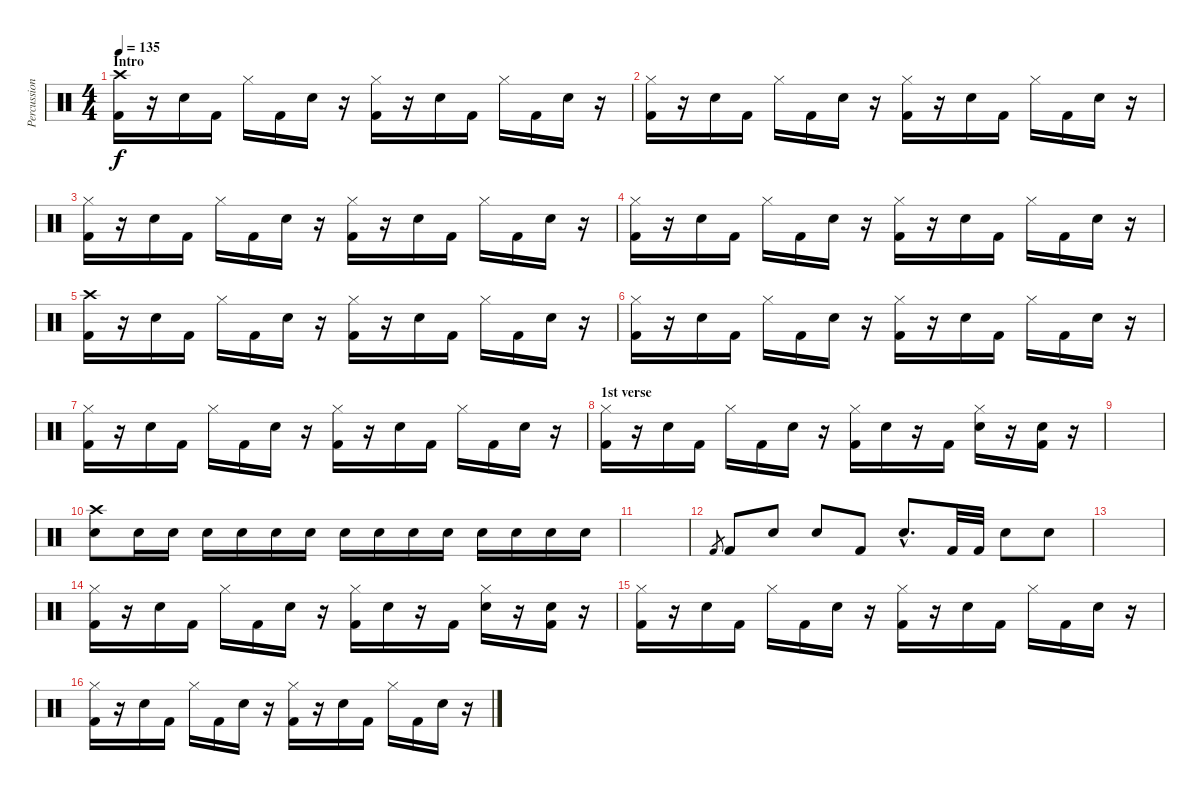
\track ("Percussion" "Percussion") {instrument percussion}
\staff {score}
\articulation defaults
\ts (4 4)
\section ("" "Intro")
\tempo 135
\clef neutral
\ks c
("Crash high (hit)" "Kick (hit) 2").16{dy f} r.16 "Snare (hit) 2".16 "Kick (hit) 2".16 "Hi-Hat (closed)".16 "Kick (hit) 2".16 "Snare (hit) 2".16 r.16 ("Hi-Hat (closed)" "Kick (hit) 2").16 r.16 "Snare (hit) 2".16 "Kick (hit) 2".16 "Hi-Hat (closed)".16 "Kick (hit) 2".16 "Snare (hit) 2".16 r.16 |
("Hi-Hat (closed)" "Kick (hit) 2").16 r.16 "Snare (hit) 2".16 "Kick (hit) 2".16 "Hi-Hat (closed)".16 "Kick (hit) 2".16 "Snare (hit) 2".16 r.16 ("Hi-Hat (closed)" "Kick (hit) 2").16 r.16 "Snare (hit) 2".16 "Kick (hit) 2".16 "Hi-Hat (closed)".16 "Kick (hit) 2".16 "Snare (hit) 2".16 r.16 |
("Hi-Hat (closed)" "Kick (hit) 2").16 r.16 "Snare (hit) 2".16 "Kick (hit) 2".16 "Hi-Hat (closed)".16 "Kick (hit) 2".16 "Snare (hit) 2".16 r.16 ("Hi-Hat (closed)" "Kick (hit) 2").16 r.16 "Snare (hit) 2".16 "Kick (hit) 2".16 "Hi-Hat (closed)".16 "Kick (hit) 2".16 "Snare (hit) 2".16 r.16 |
("Hi-Hat (closed)" "Kick (hit) 2").16 r.16 "Snare (hit) 2".16 "Kick (hit) 2".16 "Hi-Hat (closed)".16 "Kick (hit) 2".16 "Snare (hit) 2".16 r.16 ("Hi-Hat (closed)" "Kick (hit) 2").16 r.16 "Snare (hit) 2".16 "Kick (hit) 2".16 "Hi-Hat (closed)".16 "Kick (hit) 2".16 "Snare (hit) 2".16 r.16 |
("Crash high (hit)" "Kick (hit) 2").16 r.16 "Snare (hit) 2".16 "Kick (hit) 2".16 "Hi-Hat (closed)".16 "Kick (hit) 2".16 "Snare (hit) 2".16 r.16 ("Hi-Hat (closed)" "Kick (hit) 2").16 r.16 "Snare (hit) 2".16 "Kick (hit) 2".16 "Hi-Hat (closed)".16 "Kick (hit) 2".16 "Snare (hit) 2".16 r.16 |
("Hi-Hat (closed)" "Kick (hit) 2").16 r.16 "Snare (hit) 2".16 "Kick (hit) 2".16 "Hi-Hat (closed)".16 "Kick (hit) 2".16 "Snare (hit) 2".16 r.16 ("Hi-Hat (closed)" "Kick (hit) 2").16 r.16 "Snare (hit) 2".16 "Kick (hit) 2".16 "Hi-Hat (closed)".16 "Kick (hit) 2".16 "Snare (hit) 2".16 r.16 |
("Hi-Hat (closed)" "Kick (hit) 2").16 r.16 "Snare (hit) 2".16 "Kick (hit) 2".16 "Hi-Hat (closed)".16 "Kick (hit) 2".16 "Snare (hit) 2".16 r.16 ("Hi-Hat (closed)" "Kick (hit) 2").16 r.16 "Snare (hit) 2".16 "Kick (hit) 2".16 "Hi-Hat (closed)".16 "Kick (hit) 2".16 "Snare (hit) 2".16 r.16 |
\section ("" "1st verse")
("Hi-Hat (closed)" "Kick (hit) 2").16 r.16 "Snare (hit) 2".16 "Kick (hit) 2".16 "Hi-Hat (closed)".16 "Kick (hit) 2".16 "Snare (hit) 2".16 r.16 ("Hi-Hat (closed)" "Kick (hit) 2").16 "Snare (hit) 2".16 r.16 "Kick (hit) 2".16 ("Hi-Hat (closed)" "Snare (hit) 2").16 r.16 ("Snare (hit) 2" "Kick (hit) 2").16 r.16 |
|
("Crash high (hit)" "Snare (hit) 2").8 "Snare (hit) 2".16 "Snare (hit) 2".16 "Snare (hit) 2".16 "Snare (hit) 2".16 "Snare (hit) 2".16 "Snare (hit) 2".16 "Snare (hit) 2".16 "Snare (hit) 2".16 "Snare (hit) 2".16 "Snare (hit) 2".16 "Snare (hit) 2".16 "Snare (hit) 2".16 "Snare (hit) 2".16 "Snare (hit) 2".16 |
|
"Kick (hit) 2".8{gr} "Kick (hit) 2".8 "Snare (hit) 2".8 "Snare (hit) 2".8 "Kick (hit) 2".8 "Snare (hit) 2"{hac}.8{d} "Kick (hit) 2".32 "Kick (hit) 2".32 "Snare (hit) 2".8 "Snare (hit) 2".8 |
|
("Hi-Hat (closed)" "Kick (hit) 2").16 r.16 "Snare (hit) 2".16 "Kick (hit) 2".16 "Hi-Hat (closed)".16 "Kick (hit) 2".16 "Snare (hit) 2".16 r.16 ("Hi-Hat (closed)" "Kick (hit) 2").16 "Snare (hit) 2".16 r.16 "Kick (hit) 2".16 ("Hi-Hat (closed)" "Snare (hit) 2").16 r.16 ("Snare (hit) 2" "Kick (hit) 2").16 r.16 |
("Hi-Hat (closed)" "Kick (hit) 2").16 r.16 "Snare (hit) 2".16 "Kick (hit) 2".16 "Hi-Hat (closed)".16 "Kick (hit) 2".16 "Snare (hit) 2".16 r.16 ("Hi-Hat (closed)" "Kick (hit) 2").16 r.16 "Snare (hit) 2".16 "Kick (hit) 2".16 "Hi-Hat (closed)".16 "Kick (hit) 2".16 "Snare (hit) 2".16 r.16 |
("Hi-Hat (closed)" "Kick (hit) 2").16 r.16 "Snare (hit) 2".16 "Kick (hit) 2".16 "Hi-Hat (closed)".16 "Kick (hit) 2".16 "Snare (hit) 2".16 r.16 ("Hi-Hat (closed)" "Kick (hit) 2").16 r.16 "Snare (hit) 2".16 "Kick (hit) 2".16 "Hi-Hat (closed)".16 "Kick (hit) 2".16 "Snare (hit) 2".16 r.16
